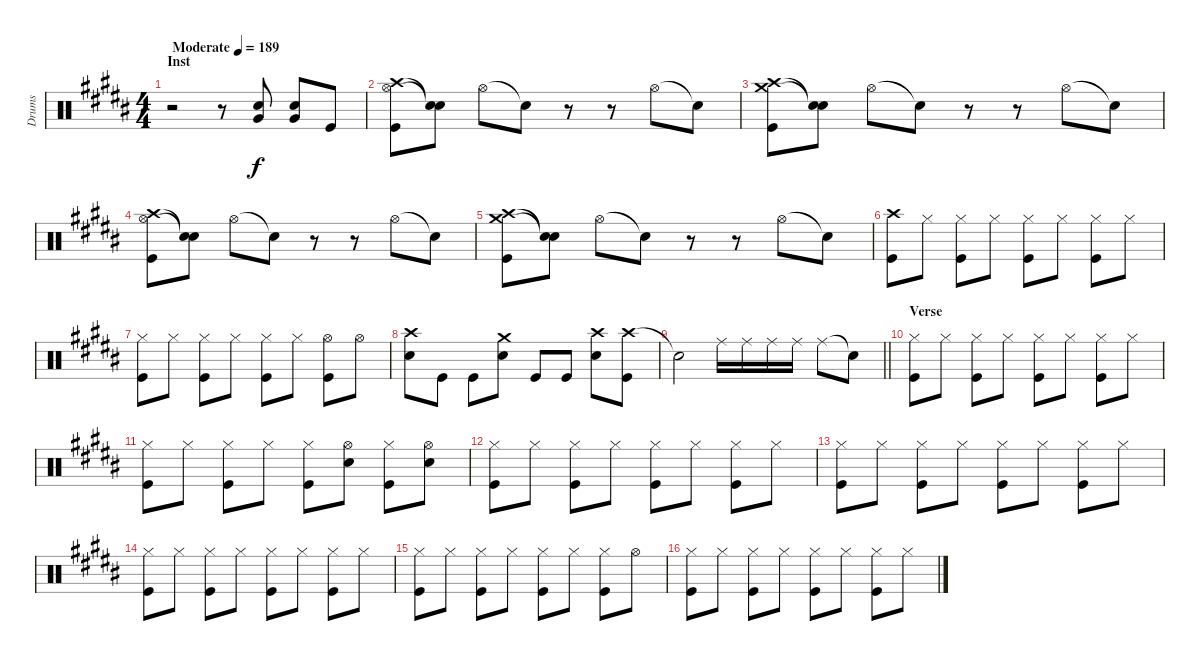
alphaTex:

\track ("Drums" "Drums") {instrument percussion}
\staff {score}
\articulation defaults
\ts (4 4)
\section ("" "Inst")
\tempo (189 "Moderate")
\clef neutral
\ks b
r.2{dy f} r.8 ("Snare (hit) 2" "Very Low Tom (hit)").8 ("Snare (hit) 2" "Very Low Tom (hit)").8 "Kick (hit)".8 |
("Crash high (hit)" "Hi-Hat (open)" "Kick (hit)").8 ("Snare (hit)"{t} "Snare (hit)"{t}).8 "Hi-Hat (open)".8 "Snare (hit)"{t}.8 r.8 r.8 "Hi-Hat (open)".8 "Snare (hit)"{t}.8 |
("Crash high (hit)" "Crash medium (hit)" "Kick (hit)").8 ("Snare (hit)"{t} "Snare (hit)"{t}).8 "Hi-Hat (open)".8 "Snare (hit)"{t}.8 r.8 r.8 "Hi-Hat (open)".8 "Snare (hit)"{t}.8 |
("Crash high (hit)" "Hi-Hat (open)" "Kick (hit)").8 ("Snare (hit)"{t} "Snare (hit)"{t}).8 "Hi-Hat (open)".8 "Snare (hit)"{t}.8 r.8 r.8 "Hi-Hat (open)".8 "Snare (hit)"{t}.8 |
("Crash high (hit)" "Crash medium (hit)" "Kick (hit)").8 ("Snare (hit)"{t} "Snare (hit)"{t}).8 "Hi-Hat (open)".8 "Snare (hit)"{t}.8 r.8 r.8 "Hi-Hat (open)".8 "Snare (hit)"{t}.8 |
("Crash high (hit)" "Kick (hit)").8 "Hi-Hat (closed)".8 ("Hi-Hat (closed)" "Kick (hit)").8 "Hi-Hat (closed)".8 ("Hi-Hat (closed)" "Kick (hit)").8 "Hi-Hat (closed)".8 ("Hi-Hat (closed)" "Kick (hit)").8 "Hi-Hat (closed)".8 |
("Hi-Hat (closed)" "Kick (hit)").8 "Hi-Hat (closed)".8 ("Hi-Hat (closed)" "Kick (hit)").8 "Hi-Hat (closed)".8 ("Hi-Hat (closed)" "Kick (hit)").8 "Hi-Hat (closed)".8 ("Hi-Hat (open)" "Kick (hit)").8 "Hi-Hat (open)".8 |
("Crash high (hit)" "Snare (hit) 2").8 "Kick (hit)".8 "Kick (hit)".8 ("Crash medium (hit)" "Snare (hit) 2").8 "Kick (hit)".8 "Kick (hit)".8 ("Crash high (hit)" "Snare (hit) 2").8 ("Crash high (hit)" "Kick (hit)").8 |
\barLineRight lightlight "Snare (hit)"{t}.2 "Ride (middle)".16 "Ride (middle)".16 "Ride (middle)".16 "Ride (middle)".16 "Ride (middle)".8 "Snare (hit)"{t}.8
|
\section ("" "Verse")
("Hi-Hat (closed)" "Kick (hit)").8 "Hi-Hat (closed)".8 ("Hi-Hat (closed)" "Kick (hit)").8 "Hi-Hat (closed)".8 ("Hi-Hat (closed)" "Kick (hit)").8 "Hi-Hat (closed)".8 ("Hi-Hat (closed)" "Kick (hit)").8 "Hi-Hat (closed)".8 |
("Hi-Hat (closed)" "Kick (hit)").8 "Hi-Hat (closed)".8 ("Hi-Hat (closed)" "Kick (hit)").8 "Hi-Hat (closed)".8 ("Hi-Hat (closed)" "Kick (hit)").8 ("Hi-Hat (open)" "Snare (hit) 2").8 ("Hi-Hat (closed)" "Kick (hit)").8 ("Hi-Hat (open)" "Snare (hit) 2").8 |
("Hi-Hat (closed)" "Kick (hit)").8 "Hi-Hat (closed)".8 ("Hi-Hat (closed)" "Kick (hit)").8 "Hi-Hat (closed)".8 ("Hi-Hat (closed)" "Kick (hit)").8 "Hi-Hat (closed)".8 ("Hi-Hat (closed)" "Kick (hit)").8 "Hi-Hat (closed)".8 |
("Hi-Hat (closed)" "Kick (hit)").8 "Hi-Hat (closed)".8 ("Hi-Hat (closed)" "Kick (hit)").8 "Hi-Hat (closed)".8 ("Hi-Hat (closed)" "Kick (hit)").8 "Hi-Hat (closed)".8 ("Hi-Hat (closed)" "Kick (hit)").8 "Hi-Hat (closed)".8 |
("Hi-Hat (closed)" "Kick (hit)").8 "Hi-Hat (closed)".8 ("Hi-Hat (closed)" "Kick (hit)").8 "Hi-Hat (closed)".8 ("Hi-Hat (closed)" "Kick (hit)").8 "Hi-Hat (closed)".8 ("Hi-Hat (closed)" "Kick (hit)").8 "Hi-Hat (closed)".8 |
("Hi-Hat (closed)" "Kick (hit)").8 "Hi-Hat (closed)".8 ("Hi-Hat (closed)" "Kick (hit)").8 "Hi-Hat (closed)".8 ("Hi-Hat (closed)" "Kick (hit)").8 "Hi-Hat (closed)".8 ("Hi-Hat (closed)" "Kick (hit)").8 "Hi-Hat (open)".8 |
("Hi-Hat (closed)" "Kick (hit)").8 "Hi-Hat (closed)".8 ("Hi-Hat (closed)" "Kick (hit)").8 "Hi-Hat (closed)".8 ("Hi-Hat (closed)" "Kick (hit)").8 "Hi-Hat (closed)".8 ("Hi-Hat (closed)" "Kick (hit)").8 "Hi-Hat (closed)".8
